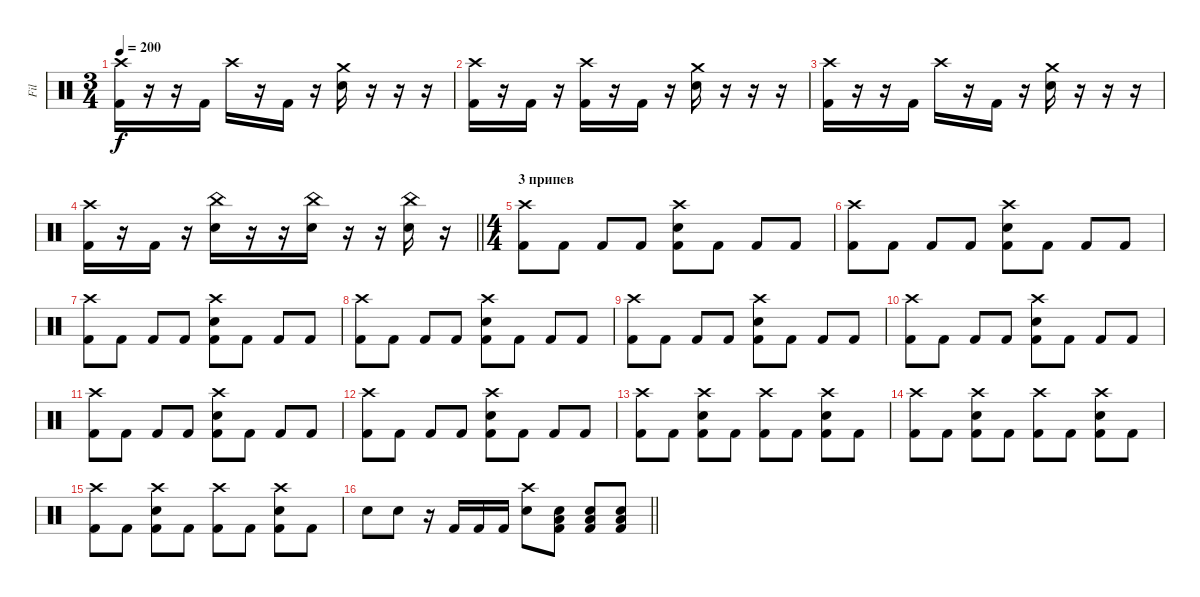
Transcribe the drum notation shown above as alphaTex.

\track ("Fil" "Fil") {instrument percussion}
\staff {score}
\articulation defaults
\ts (3 4)
\tempo 200
\clef neutral
\ks c
("Crash high (hit)" "Kick (hit) 2").16{dy f} r.16 r.16 "Kick (hit) 2".16 "Crash high (hit)".16 r.16 "Kick (hit) 2".16 r.16 ("Crash medium (hit)" "Electric Snare (hit)").16 r.16 r.16 r.16 |
("Crash high (hit)" "Kick (hit) 2").16 r.16 "Kick (hit) 2".16 r.16 ("Crash high (hit)" "Kick (hit) 2").16 r.16 "Kick (hit) 2".16 r.16 ("Crash medium (hit)" "Electric Snare (hit)").16 r.16 r.16 r.16 |
("Crash high (hit)" "Kick (hit) 2").16 r.16 r.16 "Kick (hit) 2".16 "Crash high (hit)".16 r.16 "Kick (hit) 2".16 r.16 ("Crash medium (hit)" "Electric Snare (hit)").16 r.16 r.16 r.16 |
\barLineRight lightlight
("Crash high (hit)" "Kick (hit) 2").16 r.16 "Kick (hit) 2".16 r.16 ("China (hit)" "Electric Snare (hit)").16 r.16 r.16 ("China (hit)" "Electric Snare (hit)").16 r.16 r.16 ("China (hit)" "Electric Snare (hit)").16 r.16 |
\ts (4 4)
\section ("" "3 припев")
("Crash high (hit)" "Kick (hit) 2").8 "Kick (hit) 2".8 "Kick (hit) 2".8 "Kick (hit) 2".8 ("Crash high (hit)" "Electric Snare (hit)" "Kick (hit) 2").8 "Kick (hit) 2".8 "Kick (hit) 2".8 "Kick (hit) 2".8 |
("Crash high (hit)" "Kick (hit) 2").8 "Kick (hit) 2".8 "Kick (hit) 2".8 "Kick (hit) 2".8 ("Crash high (hit)" "Electric Snare (hit)" "Kick (hit) 2").8 "Kick (hit) 2".8 "Kick (hit) 2".8 "Kick (hit) 2".8 |
("Crash high (hit)" "Kick (hit) 2").8 "Kick (hit) 2".8 "Kick (hit) 2".8 "Kick (hit) 2".8 ("Crash high (hit)" "Electric Snare (hit)" "Kick (hit) 2").8 "Kick (hit) 2".8 "Kick (hit) 2".8 "Kick (hit) 2".8 |
("Crash high (hit)" "Kick (hit) 2").8 "Kick (hit) 2".8 "Kick (hit) 2".8 "Kick (hit) 2".8 ("Crash high (hit)" "Electric Snare (hit)" "Kick (hit) 2").8 "Kick (hit) 2".8 "Kick (hit) 2".8 "Kick (hit) 2".8 |
("Crash high (hit)" "Kick (hit) 2").8 "Kick (hit) 2".8 "Kick (hit) 2".8 "Kick (hit) 2".8 ("Crash high (hit)" "Electric Snare (hit)" "Kick (hit) 2").8 "Kick (hit) 2".8 "Kick (hit) 2".8 "Kick (hit) 2".8 |
("Crash high (hit)" "Kick (hit) 2").8 "Kick (hit) 2".8 "Kick (hit) 2".8 "Kick (hit) 2".8 ("Crash high (hit)" "Electric Snare (hit)" "Kick (hit) 2").8 "Kick (hit) 2".8 "Kick (hit) 2".8 "Kick (hit) 2".8 |
("Crash high (hit)" "Kick (hit) 2").8 "Kick (hit) 2".8 "Kick (hit) 2".8 "Kick (hit) 2".8 ("Crash high (hit)" "Electric Snare (hit)" "Kick (hit) 2").8 "Kick (hit) 2".8 "Kick (hit) 2".8 "Kick (hit) 2".8 |
("Crash high (hit)" "Kick (hit) 2").8 "Kick (hit) 2".8 "Kick (hit) 2".8 "Kick (hit) 2".8 ("Crash high (hit)" "Electric Snare (hit)" "Kick (hit) 2").8 "Kick (hit) 2".8 "Kick (hit) 2".8 "Kick (hit) 2".8 |
("Crash high (hit)" "Kick (hit) 2").8 "Kick (hit) 2".8 ("Crash high (hit)" "Electric Snare (hit)" "Kick (hit) 2").8 "Kick (hit) 2".8 ("Crash high (hit)" "Kick (hit) 2").8 "Kick (hit) 2".8 ("Crash high (hit)" "Electric Snare (hit)" "Kick (hit) 2").8 "Kick (hit) 2".8 |
("Crash high (hit)" "Kick (hit) 2").8 "Kick (hit) 2".8 ("Crash high (hit)" "Electric Snare (hit)" "Kick (hit) 2").8 "Kick (hit) 2".8 ("Crash high (hit)" "Kick (hit) 2").8 "Kick (hit) 2".8 ("Crash high (hit)" "Electric Snare (hit)" "Kick (hit) 2").8 "Kick (hit) 2".8 |
("Crash high (hit)" "Kick (hit) 2").8 "Kick (hit) 2".8 ("Crash high (hit)" "Electric Snare (hit)" "Kick (hit) 2").8 "Kick (hit) 2".8 ("Crash high (hit)" "Kick (hit) 2").8 "Kick (hit) 2".8 ("Crash high (hit)" "Electric Snare (hit)" "Kick (hit) 2").8 "Kick (hit) 2".8 |
\barLineRight lightlight "Snare (hit) 2".8 "Snare (hit) 2".8
r.16 "Kick (hit) 2".16 "Kick (hit) 2".16 "Kick (hit) 2".16 ("Snare (hit) 2" "Crash high (hit)").8 ("Low Tom (hit)" "Electric Snare (hit)" "Kick (hit) 2").8 ("Low Tom (hit)" "Electric Snare (hit)" "Kick (hit) 2").8 ("Low Tom (hit)" "Electric Snare (hit)" "Kick (hit) 2").8
